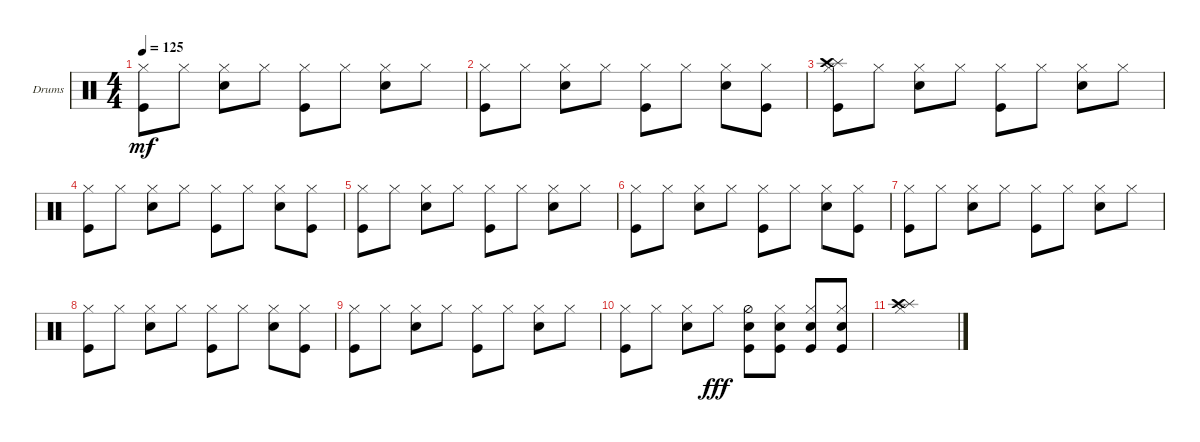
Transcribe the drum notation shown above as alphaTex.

\defaultSystemsLayout 4
\bracketExtendMode groupsimilarinstruments
\firstSystemTrackNameOrientation horizontal
\otherSystemsTrackNameOrientation horizontal
\track ("Drumkit" "Drums") {instrument percussion}
\staff {score}
\articulation defaults
\ts (4 4)
\tempo 125
\clef neutral
\ks c
("Kick (hit)" "Hi-Hat (closed)").8{dy mf} "Hi-Hat (closed)".8 ("Hi-Hat (closed)" "Snare (hit) 2").8 "Hi-Hat (closed)".8 ("Kick (hit)" "Hi-Hat (closed)").8 "Hi-Hat (closed)".8 ("Hi-Hat (closed)" "Snare (hit) 2").8 "Hi-Hat (closed)".8 |
("Kick (hit)" "Hi-Hat (closed)").8 "Hi-Hat (closed)".8 ("Hi-Hat (closed)" "Snare (hit) 2").8 "Hi-Hat (closed)".8 ("Kick (hit)" "Hi-Hat (closed)").8 "Hi-Hat (closed)".8 ("Hi-Hat (closed)" "Snare (hit) 2").8 ("Hi-Hat (closed)" "Kick (hit)").8 |
("Kick (hit)" "Hi-Hat (closed)" "Splash (hit)" "Crash high (hit)").8 "Hi-Hat (closed)".8 ("Hi-Hat (closed)" "Snare (hit) 2").8 "Hi-Hat (closed)".8 ("Kick (hit)" "Hi-Hat (closed)").8 "Hi-Hat (closed)".8 ("Hi-Hat (closed)" "Snare (hit) 2").8 "Hi-Hat (closed)".8 |
("Kick (hit)" "Hi-Hat (closed)").8 "Hi-Hat (closed)".8 ("Hi-Hat (closed)" "Snare (hit) 2").8 "Hi-Hat (closed)".8 ("Kick (hit)" "Hi-Hat (closed)").8 "Hi-Hat (closed)".8 ("Hi-Hat (closed)" "Snare (hit) 2").8 ("Hi-Hat (closed)" "Kick (hit)").8 |
("Kick (hit)" "Hi-Hat (closed)").8 "Hi-Hat (closed)".8 ("Hi-Hat (closed)" "Snare (hit) 2").8 "Hi-Hat (closed)".8 ("Kick (hit)" "Hi-Hat (closed)").8 "Hi-Hat (closed)".8 ("Hi-Hat (closed)" "Snare (hit) 2").8 "Hi-Hat (closed)".8 |
("Kick (hit)" "Hi-Hat (closed)").8 "Hi-Hat (closed)".8 ("Hi-Hat (closed)" "Snare (hit) 2").8 "Hi-Hat (closed)".8 ("Kick (hit)" "Hi-Hat (closed)").8 "Hi-Hat (closed)".8 ("Hi-Hat (closed)" "Snare (hit) 2").8 ("Hi-Hat (closed)" "Kick (hit)").8 |
("Kick (hit)" "Hi-Hat (closed)").8 "Hi-Hat (closed)".8 ("Hi-Hat (closed)" "Snare (hit) 2").8 "Hi-Hat (closed)".8 ("Kick (hit)" "Hi-Hat (closed)").8 "Hi-Hat (closed)".8 ("Hi-Hat (closed)" "Snare (hit) 2").8 "Hi-Hat (closed)".8 |
("Kick (hit)" "Hi-Hat (closed)").8 "Hi-Hat (closed)".8 ("Hi-Hat (closed)" "Snare (hit) 2").8 "Hi-Hat (closed)".8 ("Kick (hit)" "Hi-Hat (closed)").8 "Hi-Hat (closed)".8 ("Hi-Hat (closed)" "Snare (hit) 2").8 ("Hi-Hat (closed)" "Kick (hit)").8 |
("Kick (hit)" "Hi-Hat (closed)").8 "Hi-Hat (closed)".8 ("Hi-Hat (closed)" "Snare (hit) 2").8 "Hi-Hat (closed)".8 ("Kick (hit)" "Hi-Hat (closed)").8 "Hi-Hat (closed)".8 ("Hi-Hat (closed)" "Snare (hit) 2").8 "Hi-Hat (closed)".8 |
("Kick (hit)" "Hi-Hat (closed)").8 "Hi-Hat (closed)".8 ("Hi-Hat (closed)" "Snare (hit) 2").8 "Hi-Hat (closed)".8{dy fff} ("Hi-Hat (half)" "Kick (hit)" "Snare (hit) 2").8 ("Hi-Hat (closed)" "Kick (hit)" "Snare (hit) 2").8 ("Hi-Hat (closed)" "Kick (hit)" "Snare (hit) 2").8 ("Hi-Hat (closed)" "Kick (hit)" "Snare (hit) 2").8 |
("Splash (hit)" "Crash high (hit)" "Hi-Hat (closed)").1
